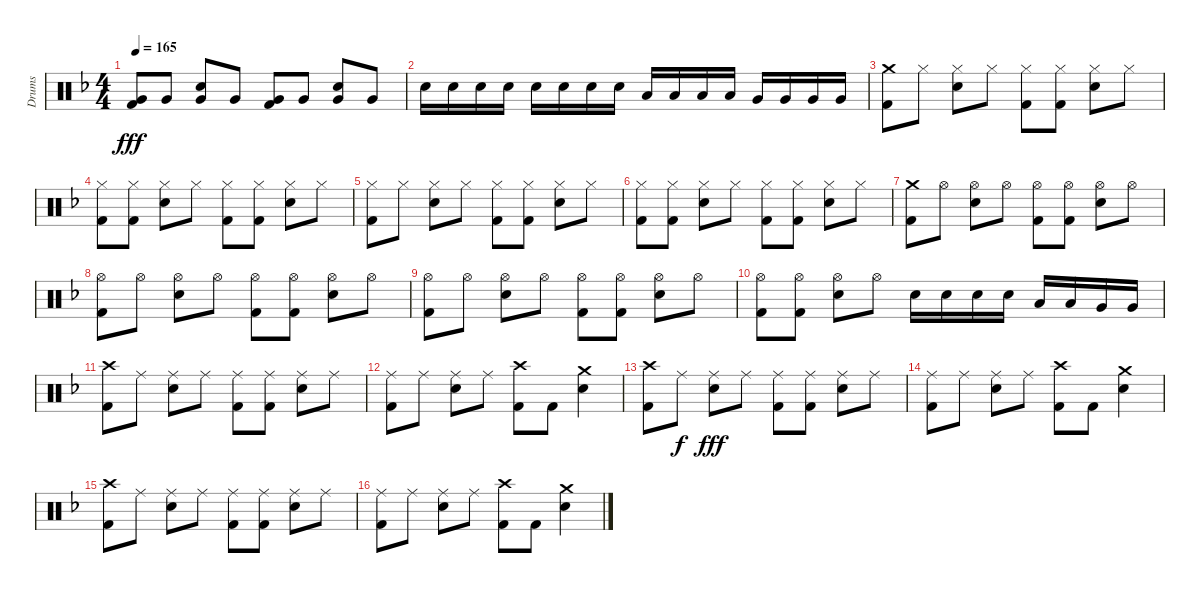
\track ("Drums" "Drums") {instrument percussion}
\staff {score}
\articulation defaults
\ts (4 4)
\tempo 165
\clef neutral
\ks f
("Very Low Tom (hit)" "Kick (hit) 2").8{dy fff} "Very Low Tom (hit)".8 ("Very Low Tom (hit)" "Electric Snare (hit)").8 "Very Low Tom (hit)".8 ("Very Low Tom (hit)" "Kick (hit) 2").8 "Very Low Tom (hit)".8 ("Very Low Tom (hit)" "Electric Snare (hit)").8 "Very Low Tom (hit)".8 |
"Electric Snare (hit)".16 "Electric Snare (hit)".16 "Electric Snare (hit)".16 "Electric Snare (hit)".16 "Electric Snare (hit)".16 "Electric Snare (hit)".16 "Electric Snare (hit)".16 "Electric Snare (hit)".16 "Low Tom (hit)".16 "Low Tom (hit)".16 "Low Tom (hit)".16 "Low Tom (hit)".16 "Very Low Tom (hit)".16 "Very Low Tom (hit)".16 "Very Low Tom (hit)".16 "Very Low Tom (hit)".16 |
("Crash medium (hit)" "Kick (hit) 2").8 "Hi-Hat (closed)".8 ("Hi-Hat (closed)" "Electric Snare (hit)").8 "Hi-Hat (closed)".8 ("Hi-Hat (closed)" "Kick (hit) 2").8 ("Hi-Hat (closed)" "Kick (hit) 2").8 ("Hi-Hat (closed)" "Electric Snare (hit)").8 "Hi-Hat (closed)".8 |
("Hi-Hat (closed)" "Kick (hit) 2").8 ("Hi-Hat (closed)" "Kick (hit) 2").8 ("Hi-Hat (closed)" "Electric Snare (hit)").8 "Hi-Hat (closed)".8 ("Hi-Hat (closed)" "Kick (hit) 2").8 ("Hi-Hat (closed)" "Kick (hit) 2").8 ("Hi-Hat (closed)" "Electric Snare (hit)").8 "Hi-Hat (closed)".8 |
("Hi-Hat (closed)" "Kick (hit) 2").8 "Hi-Hat (closed)".8 ("Hi-Hat (closed)" "Electric Snare (hit)").8 "Hi-Hat (closed)".8 ("Hi-Hat (closed)" "Kick (hit) 2").8 ("Hi-Hat (closed)" "Kick (hit) 2").8 ("Hi-Hat (closed)" "Electric Snare (hit)").8 "Hi-Hat (closed)".8 |
("Hi-Hat (closed)" "Kick (hit) 2").8 ("Hi-Hat (closed)" "Kick (hit) 2").8 ("Hi-Hat (closed)" "Electric Snare (hit)").8 "Hi-Hat (closed)".8 ("Hi-Hat (closed)" "Kick (hit) 2").8 ("Hi-Hat (closed)" "Kick (hit) 2").8 ("Hi-Hat (closed)" "Electric Snare (hit)").8 "Hi-Hat (closed)".8 |
("Crash medium (hit)" "Kick (hit) 2").8 "Hi-Hat (open)".8 ("Hi-Hat (open)" "Electric Snare (hit)").8 "Hi-Hat (open)".8 ("Hi-Hat (open)" "Kick (hit) 2").8 ("Hi-Hat (open)" "Kick (hit) 2").8 ("Hi-Hat (open)" "Electric Snare (hit)").8 "Hi-Hat (open)".8 |
("Hi-Hat (open)" "Kick (hit) 2").8 "Hi-Hat (open)".8 ("Hi-Hat (open)" "Electric Snare (hit)").8 "Hi-Hat (open)".8 ("Hi-Hat (open)" "Kick (hit) 2").8 ("Hi-Hat (open)" "Kick (hit) 2").8 ("Hi-Hat (open)" "Electric Snare (hit)").8 "Hi-Hat (open)".8 |
("Hi-Hat (open)" "Kick (hit) 2").8 "Hi-Hat (open)".8 ("Hi-Hat (open)" "Electric Snare (hit)").8 "Hi-Hat (open)".8 ("Hi-Hat (open)" "Kick (hit) 2").8 ("Hi-Hat (open)" "Kick (hit) 2").8 ("Hi-Hat (open)" "Electric Snare (hit)").8 "Hi-Hat (open)".8 |
("Hi-Hat (open)" "Kick (hit) 2").8 ("Hi-Hat (open)" "Kick (hit) 2").8 ("Hi-Hat (open)" "Electric Snare (hit)").8 "Hi-Hat (open)".8 "Electric Snare (hit)".16 "Electric Snare (hit)".16 "Electric Snare (hit)".16 "Electric Snare (hit)".16 "Low Tom (hit)".16 "Low Tom (hit)".16 "Very Low Tom (hit)".16 "Very Low Tom (hit)".16 |
("Crash high (hit)" "Kick (hit) 2").8 "Ride (middle)".8 ("Ride (middle)" "Electric Snare (hit)").8 "Ride (middle)".8 ("Ride (middle)" "Kick (hit) 2").8 ("Ride (middle)" "Kick (hit) 2").8 ("Ride (middle)" "Electric Snare (hit)").8 "Ride (middle)".8 |
("Ride (middle)" "Kick (hit) 2").8 "Ride (middle)".8 ("Ride (middle)" "Electric Snare (hit)").8 "Ride (middle)".8 ("Crash high (hit)" "Kick (hit) 2").8 "Kick (hit) 2".8 ("Crash medium (hit)" "Electric Snare (hit)").4 |
("Crash high (hit)" "Kick (hit) 2").8 "Ride (middle)".8{dy f} ("Ride (middle)" "Electric Snare (hit)").8{dy fff} "Ride (middle)".8 ("Ride (middle)" "Kick (hit) 2").8 ("Ride (middle)" "Kick (hit) 2").8 ("Ride (middle)" "Electric Snare (hit)").8 "Ride (middle)".8 |
("Ride (middle)" "Kick (hit) 2").8 "Ride (middle)".8 ("Ride (middle)" "Electric Snare (hit)").8 "Ride (middle)".8 ("Crash high (hit)" "Kick (hit) 2").8 "Kick (hit) 2".8 ("Crash medium (hit)" "Electric Snare (hit)").4 |
("Crash high (hit)" "Kick (hit) 2").8 "Ride (middle)".8 ("Ride (middle)" "Electric Snare (hit)").8 "Ride (middle)".8 ("Ride (middle)" "Kick (hit) 2").8 ("Ride (middle)" "Kick (hit) 2").8 ("Ride (middle)" "Electric Snare (hit)").8 "Ride (middle)".8 |
("Ride (middle)" "Kick (hit) 2").8 "Ride (middle)".8 ("Ride (middle)" "Electric Snare (hit)").8 "Ride (middle)".8 ("Crash high (hit)" "Kick (hit) 2").8 "Kick (hit) 2".8 ("Crash medium (hit)" "Electric Snare (hit)").4
